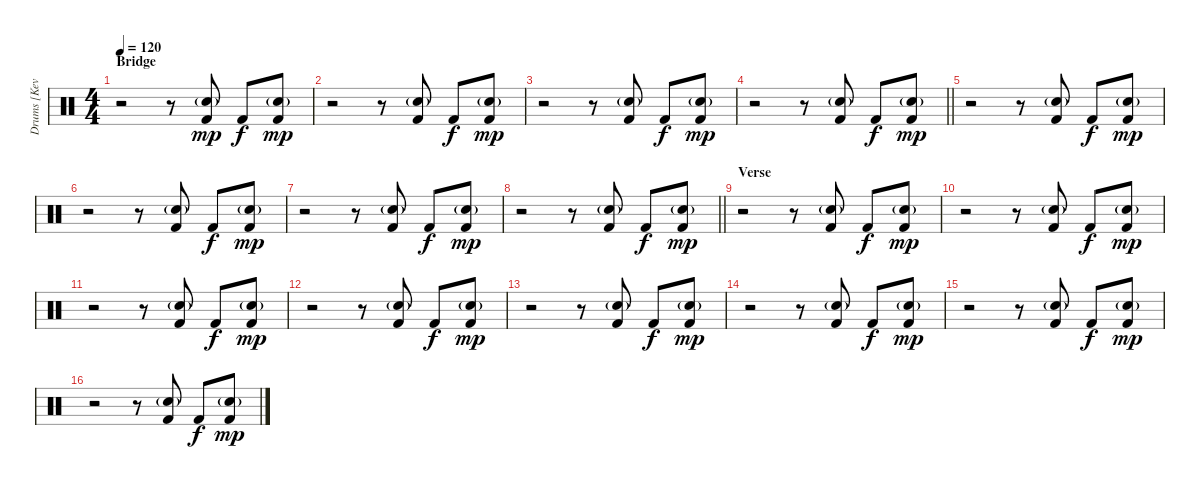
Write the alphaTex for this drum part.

\track ("Drums [Kevin Haskins]" "Drums [Kev") {instrument percussion}
\staff {score}
\articulation defaults
\ts (4 4)
\section ("" "Bridge")
\tempo 120
\clef neutral
\ks c
r.2{dy mp} r.8 ("Snare (hit) 2"{g} "Kick (hit) 2").8 "Kick (hit) 2".8{dy f} ("Snare (hit) 2"{g} "Kick (hit) 2").8{dy mp} |
r.2 r.8 ("Snare (hit) 2"{g} "Kick (hit) 2").8 "Kick (hit) 2".8{dy f} ("Snare (hit) 2"{g} "Kick (hit) 2").8{dy mp} |
r.2 r.8 ("Snare (hit) 2"{g} "Kick (hit) 2").8 "Kick (hit) 2".8{dy f} ("Snare (hit) 2"{g} "Kick (hit) 2").8{dy mp} |
\barLineRight lightlight
r.2 r.8 ("Snare (hit) 2"{g} "Kick (hit) 2").8 "Kick (hit) 2".8{dy f} ("Snare (hit) 2"{g} "Kick (hit) 2").8{dy mp} |
r.2 r.8 ("Snare (hit) 2"{g} "Kick (hit) 2").8 "Kick (hit) 2".8{dy f} ("Snare (hit) 2"{g} "Kick (hit) 2").8{dy mp} |
r.2 r.8 ("Snare (hit) 2"{g} "Kick (hit) 2").8 "Kick (hit) 2".8{dy f} ("Snare (hit) 2"{g} "Kick (hit) 2").8{dy mp} |
r.2 r.8 ("Snare (hit) 2"{g} "Kick (hit) 2").8 "Kick (hit) 2".8{dy f} ("Snare (hit) 2"{g} "Kick (hit) 2").8{dy mp} |
\barLineRight lightlight
r.2 r.8 ("Snare (hit) 2"{g} "Kick (hit) 2").8 "Kick (hit) 2".8{dy f} ("Snare (hit) 2"{g} "Kick (hit) 2").8{dy mp} |
\section ("" "Verse")
r.2 r.8 ("Snare (hit) 2"{g} "Kick (hit) 2").8 "Kick (hit) 2".8{dy f} ("Snare (hit) 2"{g} "Kick (hit) 2").8{dy mp} |
r.2 r.8 ("Snare (hit) 2"{g} "Kick (hit) 2").8 "Kick (hit) 2".8{dy f} ("Snare (hit) 2"{g} "Kick (hit) 2").8{dy mp} |
r.2 r.8 ("Snare (hit) 2"{g} "Kick (hit) 2").8 "Kick (hit) 2".8{dy f} ("Snare (hit) 2"{g} "Kick (hit) 2").8{dy mp} |
r.2 r.8 ("Snare (hit) 2"{g} "Kick (hit) 2").8 "Kick (hit) 2".8{dy f} ("Snare (hit) 2"{g} "Kick (hit) 2").8{dy mp} |
r.2 r.8 ("Snare (hit) 2"{g} "Kick (hit) 2").8 "Kick (hit) 2".8{dy f} ("Snare (hit) 2"{g} "Kick (hit) 2").8{dy mp} |
r.2 r.8 ("Snare (hit) 2"{g} "Kick (hit) 2").8 "Kick (hit) 2".8{dy f} ("Snare (hit) 2"{g} "Kick (hit) 2").8{dy mp} |
r.2 r.8 ("Snare (hit) 2"{g} "Kick (hit) 2").8 "Kick (hit) 2".8{dy f} ("Snare (hit) 2"{g} "Kick (hit) 2").8{dy mp} |
r.2 r.8 ("Snare (hit) 2"{g} "Kick (hit) 2").8 "Kick (hit) 2".8{dy f} ("Snare (hit) 2"{g} "Kick (hit) 2").8{dy mp}
